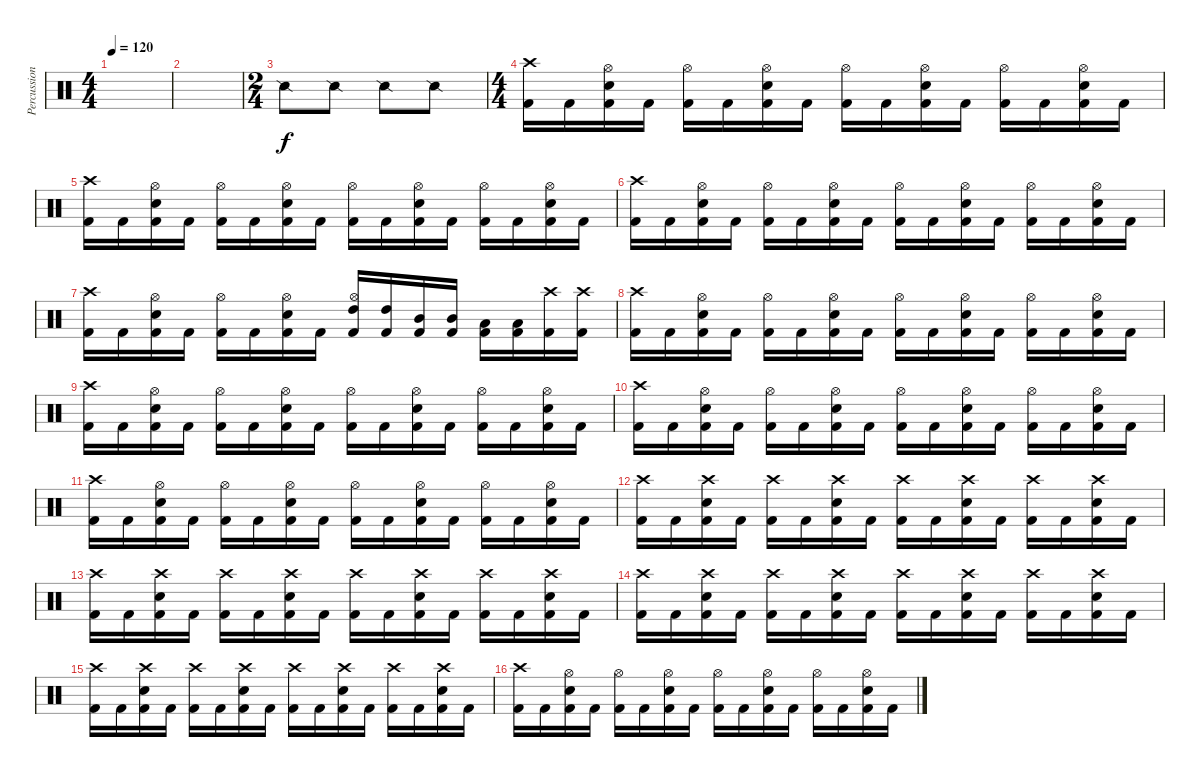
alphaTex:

\track ("Percussion" "Percussion") {instrument percussion}
\staff {score}
\articulation defaults
\ts (4 4)
\tempo 120
\clef neutral
\ks c
|
|
\ts (2 4)
"Snare (side stick) 2".8 "Snare (side stick) 2".8 "Snare (side stick) 2".8 "Snare (side stick) 2".8 |
\ts (4 4)
("Crash high (hit)" "Kick (hit) 2").16 "Kick (hit) 2".16 ("Hi-Hat (open)" "Snare (hit) 2" "Kick (hit) 2").16 "Kick (hit) 2".16 ("Hi-Hat (open)" "Kick (hit) 2").16 "Kick (hit) 2".16 ("Hi-Hat (open)" "Snare (hit) 2" "Kick (hit) 2").16 "Kick (hit) 2".16 ("Hi-Hat (open)" "Kick (hit) 2").16 "Kick (hit) 2".16 ("Hi-Hat (open)" "Snare (hit) 2" "Kick (hit) 2").16 "Kick (hit) 2".16 ("Hi-Hat (open)" "Kick (hit) 2").16 "Kick (hit) 2".16 ("Hi-Hat (open)" "Snare (hit) 2" "Kick (hit) 2").16 "Kick (hit) 2".16 |
("Crash high (hit)" "Kick (hit) 2").16 "Kick (hit) 2".16 ("Hi-Hat (open)" "Snare (hit) 2" "Kick (hit) 2").16 "Kick (hit) 2".16 ("Hi-Hat (open)" "Kick (hit) 2").16 "Kick (hit) 2".16 ("Hi-Hat (open)" "Snare (hit) 2" "Kick (hit) 2").16 "Kick (hit) 2".16 ("Hi-Hat (open)" "Kick (hit) 2").16 "Kick (hit) 2".16 ("Hi-Hat (open)" "Snare (hit) 2" "Kick (hit) 2").16 "Kick (hit) 2".16 ("Hi-Hat (open)" "Kick (hit) 2").16 "Kick (hit) 2".16 ("Hi-Hat (open)" "Snare (hit) 2" "Kick (hit) 2").16 "Kick (hit) 2".16 |
("Crash high (hit)" "Kick (hit) 2").16 "Kick (hit) 2".16 ("Hi-Hat (open)" "Snare (hit) 2" "Kick (hit) 2").16 "Kick (hit) 2".16 ("Hi-Hat (open)" "Kick (hit) 2").16 "Kick (hit) 2".16 ("Hi-Hat (open)" "Snare (hit) 2" "Kick (hit) 2").16 "Kick (hit) 2".16 ("Hi-Hat (open)" "Kick (hit) 2").16 "Kick (hit) 2".16 ("Hi-Hat (open)" "Snare (hit) 2" "Kick (hit) 2").16 "Kick (hit) 2".16 ("Hi-Hat (open)" "Kick (hit) 2").16 "Kick (hit) 2".16 ("Hi-Hat (open)" "Snare (hit) 2" "Kick (hit) 2").16 "Kick (hit) 2".16 |
("Crash high (hit)" "Kick (hit) 2").16 "Kick (hit) 2".16 ("Hi-Hat (open)" "Snare (hit) 2" "Kick (hit) 2").16 "Kick (hit) 2".16 ("Hi-Hat (open)" "Kick (hit) 2").16 "Kick (hit) 2".16 ("Hi-Hat (open)" "Snare (hit) 2" "Kick (hit) 2").16 "Kick (hit) 2".16 ("Hi-Hat (open)" "High Tom (hit)" "Kick (hit) 2").16 ("High Tom (hit)" "Kick (hit) 2").16 ("Mid Tom (hit)" "Kick (hit) 2").16 ("Mid Tom (hit)" "Kick (hit) 2").16 ("Low Tom (hit)" "Kick (hit) 2").16 ("Low Tom (hit)" "Kick (hit) 2").16 ("Crash high (hit)" "Kick (hit) 2").16 ("Crash high (hit)" "Kick (hit) 2").16 |
("Crash high (hit)" "Kick (hit) 2").16 "Kick (hit) 2".16 ("Hi-Hat (open)" "Snare (hit) 2" "Kick (hit) 2").16 "Kick (hit) 2".16 ("Hi-Hat (open)" "Kick (hit) 2").16 "Kick (hit) 2".16 ("Hi-Hat (open)" "Snare (hit) 2" "Kick (hit) 2").16 "Kick (hit) 2".16 ("Hi-Hat (open)" "Kick (hit) 2").16 "Kick (hit) 2".16 ("Hi-Hat (open)" "Snare (hit) 2" "Kick (hit) 2").16 "Kick (hit) 2".16 ("Hi-Hat (open)" "Kick (hit) 2").16 "Kick (hit) 2".16 ("Hi-Hat (open)" "Snare (hit) 2" "Kick (hit) 2").16 "Kick (hit) 2".16 |
("Crash high (hit)" "Kick (hit) 2").16 "Kick (hit) 2".16 ("Hi-Hat (open)" "Snare (hit) 2" "Kick (hit) 2").16 "Kick (hit) 2".16 ("Hi-Hat (open)" "Kick (hit) 2").16 "Kick (hit) 2".16 ("Hi-Hat (open)" "Snare (hit) 2" "Kick (hit) 2").16 "Kick (hit) 2".16 ("Hi-Hat (open)" "Kick (hit) 2").16 "Kick (hit) 2".16 ("Hi-Hat (open)" "Snare (hit) 2" "Kick (hit) 2").16 "Kick (hit) 2".16 ("Hi-Hat (open)" "Kick (hit) 2").16 "Kick (hit) 2".16 ("Hi-Hat (open)" "Snare (hit) 2" "Kick (hit) 2").16 "Kick (hit) 2".16 |
("Crash high (hit)" "Kick (hit) 2").16 "Kick (hit) 2".16 ("Hi-Hat (open)" "Snare (hit) 2" "Kick (hit) 2").16 "Kick (hit) 2".16 ("Hi-Hat (open)" "Kick (hit) 2").16 "Kick (hit) 2".16 ("Hi-Hat (open)" "Snare (hit) 2" "Kick (hit) 2").16 "Kick (hit) 2".16 ("Hi-Hat (open)" "Kick (hit) 2").16 "Kick (hit) 2".16 ("Hi-Hat (open)" "Snare (hit) 2" "Kick (hit) 2").16 "Kick (hit) 2".16 ("Hi-Hat (open)" "Kick (hit) 2").16 "Kick (hit) 2".16 ("Hi-Hat (open)" "Snare (hit) 2" "Kick (hit) 2").16 "Kick (hit) 2".16 |
("Crash high (hit)" "Kick (hit) 2").16 "Kick (hit) 2".16 ("Hi-Hat (open)" "Snare (hit) 2" "Kick (hit) 2").16 "Kick (hit) 2".16 ("Hi-Hat (open)" "Kick (hit) 2").16 "Kick (hit) 2".16 ("Hi-Hat (open)" "Snare (hit) 2" "Kick (hit) 2").16 "Kick (hit) 2".16 ("Hi-Hat (open)" "Kick (hit) 2").16 "Kick (hit) 2".16 ("Hi-Hat (open)" "Snare (hit) 2" "Kick (hit) 2").16 "Kick (hit) 2".16 ("Hi-Hat (open)" "Kick (hit) 2").16 "Kick (hit) 2".16 ("Hi-Hat (open)" "Snare (hit) 2" "Kick (hit) 2").16 "Kick (hit) 2".16 |
("Crash high (hit)" "Kick (hit) 2").16 "Kick (hit) 2".16 ("Crash high (hit)" "Snare (hit) 2" "Kick (hit) 2").16 "Kick (hit) 2".16 ("Crash high (hit)" "Kick (hit) 2").16 "Kick (hit) 2".16 ("Crash high (hit)" "Snare (hit) 2" "Kick (hit) 2").16 "Kick (hit) 2".16 ("Crash high (hit)" "Kick (hit) 2").16 "Kick (hit) 2".16 ("Crash high (hit)" "Snare (hit) 2" "Kick (hit) 2").16 "Kick (hit) 2".16 ("Crash high (hit)" "Kick (hit) 2").16 "Kick (hit) 2".16 ("Crash high (hit)" "Snare (hit) 2" "Kick (hit) 2").16 "Kick (hit) 2".16 |
("Crash high (hit)" "Kick (hit) 2").16 "Kick (hit) 2".16 ("Crash high (hit)" "Snare (hit) 2" "Kick (hit) 2").16 "Kick (hit) 2".16 ("Crash high (hit)" "Kick (hit) 2").16 "Kick (hit) 2".16 ("Crash high (hit)" "Snare (hit) 2" "Kick (hit) 2").16 "Kick (hit) 2".16 ("Crash high (hit)" "Kick (hit) 2").16 "Kick (hit) 2".16 ("Crash high (hit)" "Snare (hit) 2" "Kick (hit) 2").16 "Kick (hit) 2".16 ("Crash high (hit)" "Kick (hit) 2").16 "Kick (hit) 2".16 ("Crash high (hit)" "Snare (hit) 2" "Kick (hit) 2").16 "Kick (hit) 2".16 |
("Crash high (hit)" "Kick (hit) 2").16 "Kick (hit) 2".16 ("Crash high (hit)" "Snare (hit) 2" "Kick (hit) 2").16 "Kick (hit) 2".16 ("Crash high (hit)" "Kick (hit) 2").16 "Kick (hit) 2".16 ("Crash high (hit)" "Snare (hit) 2" "Kick (hit) 2").16 "Kick (hit) 2".16 ("Crash high (hit)" "Kick (hit) 2").16 "Kick (hit) 2".16 ("Crash high (hit)" "Snare (hit) 2" "Kick (hit) 2").16 "Kick (hit) 2".16 ("Crash high (hit)" "Kick (hit) 2").16 "Kick (hit) 2".16 ("Crash high (hit)" "Snare (hit) 2" "Kick (hit) 2").16 "Kick (hit) 2".16 |
("Crash high (hit)" "Kick (hit) 2").16 "Kick (hit) 2".16 ("Crash high (hit)" "Snare (hit) 2" "Kick (hit) 2").16 "Kick (hit) 2".16 ("Crash high (hit)" "Kick (hit) 2").16 "Kick (hit) 2".16 ("Crash high (hit)" "Snare (hit) 2" "Kick (hit) 2").16 "Kick (hit) 2".16 ("Crash high (hit)" "Kick (hit) 2").16 "Kick (hit) 2".16 ("Crash high (hit)" "Snare (hit) 2" "Kick (hit) 2").16 "Kick (hit) 2".16 ("Crash high (hit)" "Kick (hit) 2").16 "Kick (hit) 2".16 ("Crash high (hit)" "Snare (hit) 2" "Kick (hit) 2").16 "Kick (hit) 2".16 |
("Crash high (hit)" "Kick (hit) 2").16 "Kick (hit) 2".16 ("Hi-Hat (open)" "Snare (hit) 2" "Kick (hit) 2").16 "Kick (hit) 2".16 ("Hi-Hat (open)" "Kick (hit) 2").16 "Kick (hit) 2".16 ("Hi-Hat (open)" "Snare (hit) 2" "Kick (hit) 2").16 "Kick (hit) 2".16 ("Hi-Hat (open)" "Kick (hit) 2").16 "Kick (hit) 2".16 ("Hi-Hat (open)" "Snare (hit) 2" "Kick (hit) 2").16 "Kick (hit) 2".16 ("Hi-Hat (open)" "Kick (hit) 2").16 "Kick (hit) 2".16 ("Hi-Hat (open)" "Snare (hit) 2" "Kick (hit) 2").16 "Kick (hit) 2".16
